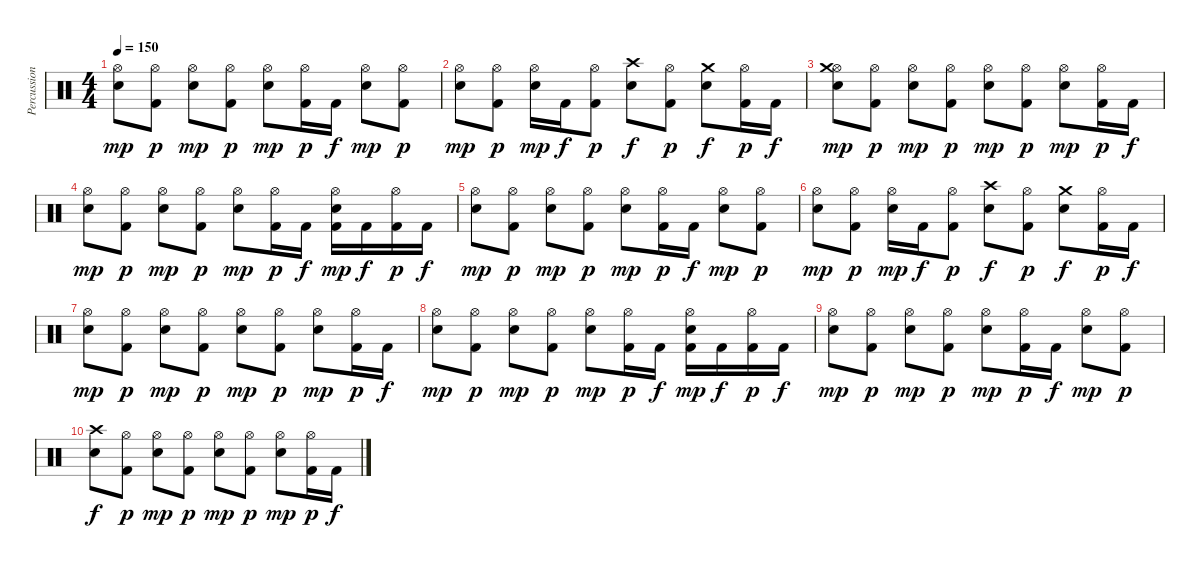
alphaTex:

\track ("Percussion" "Percussion") {instrument percussion}
\staff {score}
\articulation defaults
\ts (4 4)
\tempo 150
\clef neutral
\ks c
("Hi-Hat (open)" "Snare (hit) 2").8{dy mp} ("Hi-Hat (open)" "Kick (hit) 2").8{dy p} ("Hi-Hat (open)" "Snare (hit) 2").8{dy mp} ("Hi-Hat (open)" "Kick (hit) 2").8{dy p} ("Hi-Hat (open)" "Snare (hit) 2").8{dy mp} ("Hi-Hat (open)" "Kick (hit) 2").16{dy p} "Kick (hit) 2".16{dy f} ("Hi-Hat (open)" "Snare (hit) 2").8{dy mp} ("Hi-Hat (open)" "Kick (hit) 2").8{dy p} |
("Hi-Hat (open)" "Snare (hit) 2").8{dy mp} ("Hi-Hat (open)" "Kick (hit) 2").8{dy p} ("Hi-Hat (open)" "Snare (hit) 2").16{dy mp} "Kick (hit) 2".16{dy f} ("Hi-Hat (open)" "Kick (hit) 2").8{dy p} ("Crash high (hit)" "Snare (hit) 2").8{dy f} ("Hi-Hat (open)" "Kick (hit) 2").8{dy p} ("Crash medium (hit)" "Snare (hit) 2").8{dy f} ("Hi-Hat (open)" "Kick (hit) 2").16{dy p} "Kick (hit) 2".16{dy f} |
("Hi-Hat (open)" "Crash medium (hit)" "Snare (hit) 2").8{dy mp} ("Hi-Hat (open)" "Kick (hit) 2").8{dy p} ("Hi-Hat (open)" "Snare (hit) 2").8{dy mp} ("Hi-Hat (open)" "Kick (hit) 2").8{dy p} ("Hi-Hat (open)" "Snare (hit) 2").8{dy mp} ("Hi-Hat (open)" "Kick (hit) 2").8{dy p} ("Hi-Hat (open)" "Snare (hit) 2").8{dy mp} ("Hi-Hat (open)" "Kick (hit) 2").16{dy p} "Kick (hit) 2".16{dy f} |
("Hi-Hat (open)" "Snare (hit) 2").8{dy mp} ("Hi-Hat (open)" "Kick (hit) 2").8{dy p} ("Hi-Hat (open)" "Snare (hit) 2").8{dy mp} ("Hi-Hat (open)" "Kick (hit) 2").8{dy p} ("Hi-Hat (open)" "Snare (hit) 2").8{dy mp} ("Hi-Hat (open)" "Kick (hit) 2").16{dy p} "Kick (hit) 2".16{dy f} ("Hi-Hat (open)" "Kick (hit) 2" "Snare (hit) 2").16{dy mp} "Kick (hit) 2".16{dy f} ("Hi-Hat (open)" "Kick (hit) 2").16{dy p} "Kick (hit) 2".16{dy f} |
("Hi-Hat (open)" "Snare (hit) 2").8{dy mp} ("Hi-Hat (open)" "Kick (hit) 2").8{dy p} ("Hi-Hat (open)" "Snare (hit) 2").8{dy mp} ("Hi-Hat (open)" "Kick (hit) 2").8{dy p} ("Hi-Hat (open)" "Snare (hit) 2").8{dy mp} ("Hi-Hat (open)" "Kick (hit) 2").16{dy p} "Kick (hit) 2".16{dy f} ("Hi-Hat (open)" "Snare (hit) 2").8{dy mp} ("Hi-Hat (open)" "Kick (hit) 2").8{dy p} |
("Hi-Hat (open)" "Snare (hit) 2").8{dy mp} ("Hi-Hat (open)" "Kick (hit) 2").8{dy p} ("Hi-Hat (open)" "Snare (hit) 2").16{dy mp} "Kick (hit) 2".16{dy f} ("Hi-Hat (open)" "Kick (hit) 2").8{dy p} ("Crash high (hit)" "Snare (hit) 2").8{dy f} ("Hi-Hat (open)" "Kick (hit) 2").8{dy p} ("Crash medium (hit)" "Snare (hit) 2").8{dy f} ("Hi-Hat (open)" "Kick (hit) 2").16{dy p} "Kick (hit) 2".16{dy f} |
("Hi-Hat (open)" "Snare (hit) 2").8{dy mp volume 7} ("Hi-Hat (open)" "Kick (hit) 2").8{dy p} ("Hi-Hat (open)" "Snare (hit) 2").8{dy mp} ("Hi-Hat (open)" "Kick (hit) 2").8{dy p} ("Hi-Hat (open)" "Snare (hit) 2").8{dy mp} ("Hi-Hat (open)" "Kick (hit) 2").8{dy p} ("Hi-Hat (open)" "Snare (hit) 2").8{dy mp} ("Hi-Hat (open)" "Kick (hit) 2").16{dy p} "Kick (hit) 2".16{dy f} |
("Hi-Hat (open)" "Snare (hit) 2").8{dy mp} ("Hi-Hat (open)" "Kick (hit) 2").8{dy p} ("Hi-Hat (open)" "Snare (hit) 2").8{dy mp} ("Hi-Hat (open)" "Kick (hit) 2").8{dy p} ("Hi-Hat (open)" "Snare (hit) 2").8{dy mp} ("Hi-Hat (open)" "Kick (hit) 2").16{dy p} "Kick (hit) 2".16{dy f} ("Hi-Hat (open)" "Kick (hit) 2" "Snare (hit) 2").16{dy mp} "Kick (hit) 2".16{dy f} ("Hi-Hat (open)" "Kick (hit) 2").16{dy p} "Kick (hit) 2".16{dy f} |
("Hi-Hat (open)" "Snare (hit) 2").8{dy mp volume 0} ("Hi-Hat (open)" "Kick (hit) 2").8{dy p} ("Hi-Hat (open)" "Snare (hit) 2").8{dy mp} ("Hi-Hat (open)" "Kick (hit) 2").8{dy p} ("Hi-Hat (open)" "Snare (hit) 2").8{dy mp} ("Hi-Hat (open)" "Kick (hit) 2").16{dy p} "Kick (hit) 2".16{dy f} ("Hi-Hat (open)" "Snare (hit) 2").8{dy mp} ("Hi-Hat (open)" "Kick (hit) 2").8{dy p} |
("Crash high (hit)" "Snare (hit) 2").8{dy f} ("Hi-Hat (open)" "Kick (hit) 2").8{dy p} ("Hi-Hat (open)" "Snare (hit) 2").8{dy mp} ("Hi-Hat (open)" "Kick (hit) 2").8{dy p} ("Hi-Hat (open)" "Snare (hit) 2").8{dy mp} ("Hi-Hat (open)" "Kick (hit) 2").8{dy p} ("Hi-Hat (open)" "Snare (hit) 2").8{dy mp} ("Hi-Hat (open)" "Kick (hit) 2").16{dy p} "Kick (hit) 2".16{dy f}
